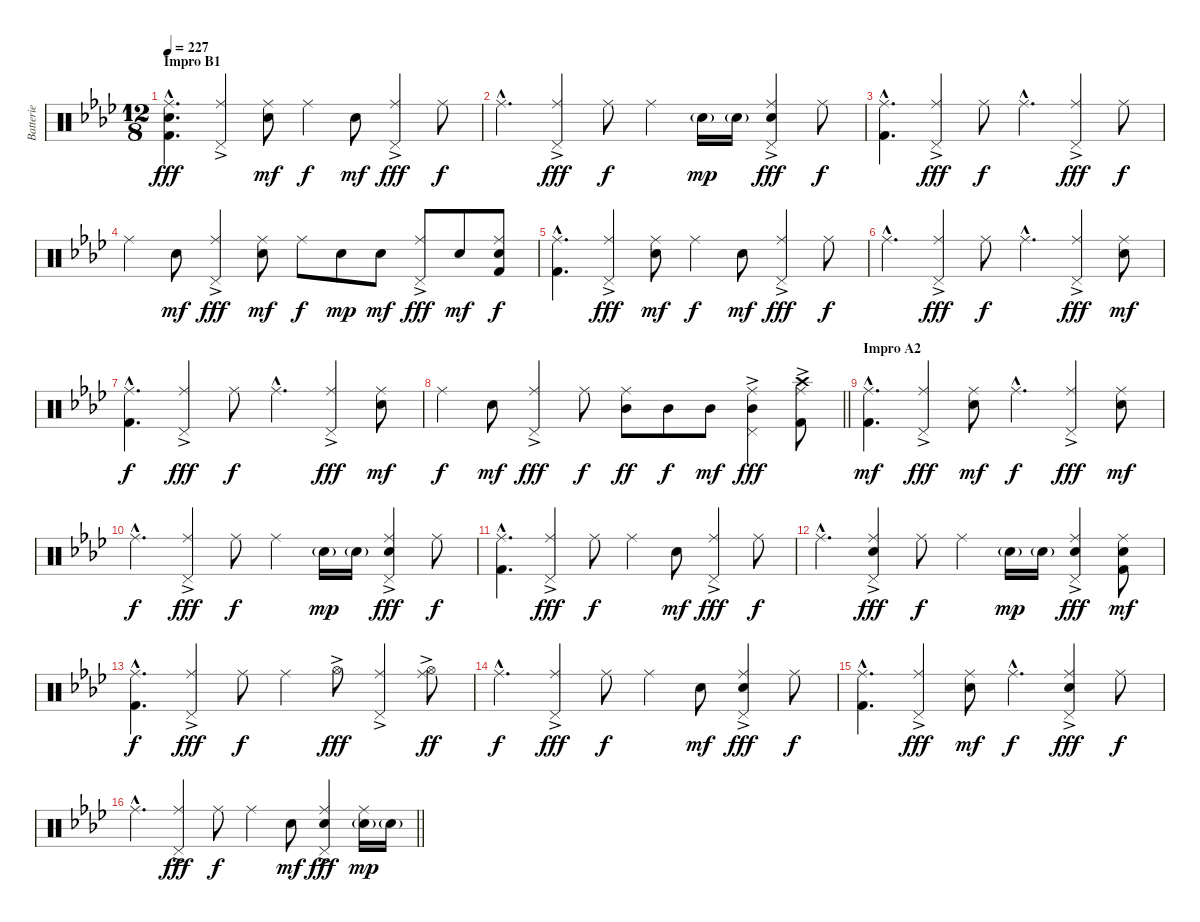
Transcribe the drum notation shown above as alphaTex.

\track ("Batterie" "Batterie") {instrument percussion}
\staff {score}
\articulation defaults
\ts (12 8)
\section ("" "Impro B1")
\tempo 227
\clef neutral
\ks fminor
("Ride (middle)"{hac} "Snare (hit) 2"{hac} "Kick (hit) 2"{hac}).4{d dy fff volume 12 balance 8} ("Ride (middle)" "Pedal Hi-Hat (hit)"{ac}).4 ("Ride (middle)" "Snare (hit) 2").8{dy mf} "Ride (middle)".4{dy f} "Snare (hit) 2".8{dy mf} ("Ride (middle)" "Pedal Hi-Hat (hit)"{ac}).4{dy fff} "Ride (middle)".8{dy f} |
"Ride (middle)"{hac}.4{d} ("Ride (middle)" "Pedal Hi-Hat (hit)"{ac}).4{dy fff} "Ride (middle)".8{dy f} "Ride (middle)".4 "Snare (hit) 2"{g}.16{dy mp} "Snare (hit) 2"{g}.16 ("Ride (middle)" "Pedal Hi-Hat (hit)"{ac} "Snare (hit) 2"{ac}).4{dy fff} "Ride (middle)".8{dy f} |
("Ride (middle)"{hac} "Kick (hit) 2"{hac}).4{d} ("Ride (middle)" "Pedal Hi-Hat (hit)"{ac}).4{dy fff} "Ride (middle)".8{dy f} "Ride (middle)"{hac}.4{d} ("Ride (middle)" "Pedal Hi-Hat (hit)"{ac}).4{dy fff} "Ride (middle)".8{dy f} |
"Ride (middle)".4 "Snare (hit) 2".8{dy mf} ("Ride (middle)" "Pedal Hi-Hat (hit)"{ac}).4{dy fff} ("Ride (middle)" "Snare (hit) 2").8{dy mf} "Ride (middle)".8{dy f} "Snare (hit) 2".8{dy mp} "Snare (hit) 2".8{dy mf} ("Ride (middle)" "Pedal Hi-Hat (hit)"{ac}).8{dy fff} "Snare (hit) 2".8{dy mf} ("Ride (middle)" "Snare (hit) 2" "Kick (hit) 2").8{dy f} |
("Ride (middle)"{hac} "Kick (hit) 2"{hac}).4{d} ("Ride (middle)" "Pedal Hi-Hat (hit)"{ac}).4{dy fff} ("Ride (middle)" "Snare (hit) 2").8{dy mf} "Ride (middle)".4{dy f} "Snare (hit) 2".8{dy mf} ("Ride (middle)" "Pedal Hi-Hat (hit)"{ac}).4{dy fff} "Ride (middle)".8{dy f} |
"Ride (middle)"{hac}.4{d} ("Ride (middle)" "Pedal Hi-Hat (hit)"{ac}).4{dy fff} "Ride (middle)".8{dy f} "Ride (middle)"{hac}.4{d} ("Ride (middle)" "Pedal Hi-Hat (hit)"{ac}).4{dy fff} ("Ride (middle)" "Snare (hit) 2").8{dy mf} |
("Ride (middle)"{hac} "Kick (hit) 2"{hac}).4{d dy f} ("Ride (middle)" "Pedal Hi-Hat (hit)"{ac}).4{dy fff} "Ride (middle)".8{dy f} "Ride (middle)"{hac}.4{d} ("Ride (middle)" "Pedal Hi-Hat (hit)"{ac}).4{dy fff} ("Ride (middle)" "Snare (hit) 2").8{dy mf} |
\barLineRight lightlight "Ride (middle)".4{dy f} "Snare (hit) 2".8{dy mf}
("Ride (middle)" "Pedal Hi-Hat (hit)"{ac}).4{dy fff} "Ride (middle)".8{dy f} ("Ride (middle)" "Mid Tom (hit)").8{dy ff} "Mid Tom (hit)".8{dy f} "Mid Tom (hit)".8{dy mf} ("Ride (middle)" "Pedal Hi-Hat (hit)"{ac} "Mid Tom (hit)").4{dy fff} ("Ride (middle)" "Crash high (hit)"{ac} "Kick (hit) 2").8 |
\section ("" "Impro A2")
("Ride (middle)"{hac} "Kick (hit) 2"{hac}).4{d dy mf volume 11 balance 8} ("Ride (middle)" "Pedal Hi-Hat (hit)"{ac}).4{dy fff} ("Ride (middle)" "Snare (hit) 2").8{dy mf} "Ride (middle)"{hac}.4{d dy f} ("Ride (middle)" "Pedal Hi-Hat (hit)"{ac}).4{dy fff} ("Ride (middle)" "Snare (hit) 2").8{dy mf} |
"Ride (middle)"{hac}.4{d dy f} ("Ride (middle)" "Pedal Hi-Hat (hit)"{ac}).4{dy fff} "Ride (middle)".8{dy f} "Ride (middle)".4 "Snare (hit) 2"{g}.16{dy mp} "Snare (hit) 2"{g}.16 ("Ride (middle)" "Pedal Hi-Hat (hit)"{ac} "Snare (hit) 2").4{dy fff} "Ride (middle)".8{dy f} |
("Ride (middle)"{hac} "Kick (hit) 2"{hac}).4{d} ("Ride (middle)" "Pedal Hi-Hat (hit)"{ac}).4{dy fff} "Ride (middle)".8{dy f} "Ride (middle)".4 "Snare (hit) 2".8{dy mf} ("Ride (middle)" "Pedal Hi-Hat (hit)"{ac}).4{dy fff} "Ride (middle)".8{dy f} |
"Ride (middle)"{hac}.4{d} ("Ride (middle)" "Pedal Hi-Hat (hit)"{ac} "Snare (hit) 2").4{dy fff} "Ride (middle)".8{dy f} "Ride (middle)".4 "Snare (hit) 2"{g}.16{dy mp} "Snare (hit) 2"{g}.16 ("Ride (middle)" "Pedal Hi-Hat (hit)"{ac} "Snare (hit) 2"{ac}).4{dy fff} ("Ride (middle)" "Snare (hit) 2" "Kick (hit) 2").8{dy mf} |
("Ride (middle)"{hac} "Kick (hit) 2"{hac}).4{d dy f} ("Ride (middle)" "Pedal Hi-Hat (hit)"{ac}).4{dy fff} "Ride (middle)".8{dy f} "Ride (middle)".4 "Hi-Hat (open)"{ac}.8{dy fff} ("Ride (middle)" "Pedal Hi-Hat (hit)"{ac}).4 ("Ride (middle)" "Hi-Hat (open)"{ac}).8{dy ff} |
"Ride (middle)"{hac}.4{d dy f} ("Ride (middle)" "Pedal Hi-Hat (hit)"{ac}).4{dy fff} "Ride (middle)".8{dy f} "Ride (middle)".4 "Snare (hit) 2".8{dy mf} ("Ride (middle)" "Pedal Hi-Hat (hit)"{ac} "Snare (hit) 2").4{dy fff} "Ride (middle)".8{dy f} |
("Ride (middle)"{hac} "Kick (hit) 2"{hac}).4{d} ("Ride (middle)" "Pedal Hi-Hat (hit)"{ac}).4{dy fff} ("Ride (middle)" "Snare (hit) 2").8{dy mf} "Ride (middle)"{hac}.4{d dy f} ("Ride (middle)" "Pedal Hi-Hat (hit)"{ac} "Snare (hit) 2").4{dy fff} "Ride (middle)".8{dy f} |
\barLineRight lightlight "Ride (middle)"{hac}.4{d}
("Ride (middle)" "Pedal Hi-Hat (hit)"{ac}).4{dy fff} "Ride (middle)".8{dy f} "Ride (middle)".4 "Snare (hit) 2".8{dy mf} ("Ride (middle)" "Pedal Hi-Hat (hit)"{ac} "Snare (hit) 2").4{dy fff} ("Ride (middle)" "Snare (hit) 2"{g}).16{dy mp} "Snare (hit) 2"{g}.16
